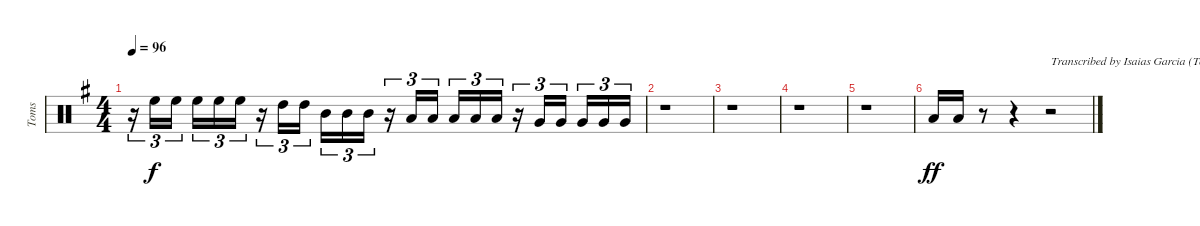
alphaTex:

\track ("Toms" "Toms") {instrument percussion}
\staff {score}
\articulation defaults
\ts (4 4)
\tempo 96
\clef neutral
\ks g
r.16{tu (3 2) dy f balance 12} "High Floor Tom (hit)".16{tu (3 2)} "High Floor Tom (hit)".16{tu (3 2) beam splitsecondary} "High Floor Tom (hit)".16{tu (3 2)} "High Floor Tom (hit)".16{tu (3 2)} "High Floor Tom (hit)".16{tu (3 2)} r.16{tu (3 2)} "High Tom (hit)".16{tu (3 2) balance 10} "High Tom (hit)".16{tu (3 2) beam splitsecondary} "Mid Tom (hit)".16{tu (3 2) balance 8} "Mid Tom (hit)".16{tu (3 2)} "Mid Tom (hit)".16{tu (3 2)} r.16{tu (3 2)} "Low Tom (hit)".16{tu (3 2) balance 6} "Low Tom (hit)".16{tu (3 2) beam splitsecondary} "Low Tom (hit)".16{tu (3 2)} "Low Tom (hit)".16{tu (3 2)} "Low Tom (hit)".16{tu (3 2)} r.16{tu (3 2)} "Very Low Tom (hit)".16{tu (3 2) balance 4} "Very Low Tom (hit)".16{tu (3 2) beam splitsecondary} "Very Low Tom (hit)".16{tu (3 2)} "Very Low Tom (hit)".16{tu (3 2)} "Very Low Tom (hit)".16{tu (3 2)} |
r.1 |
r.1 |
r.1 |
r.1 |
"Low Tom (hit)".16{dy ff balance 6} "Low Tom (hit)".16 r.8 r.4 r.2{txt "Transcribed by Isaias Garcia (TexasFury)"}
